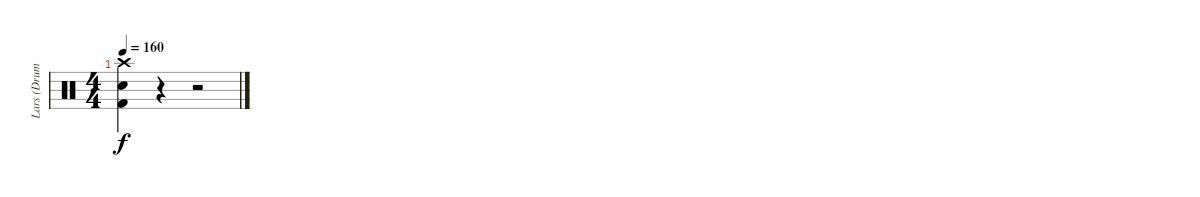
\track ("Lars (Drums)" "Lars (Drum") {instrument percussion}
\staff {score}
\articulation defaults
\ts (4 4)
\tempo 160
\clef neutral
\ks c
("Crash high (hit)" "Snare (hit) 2" "Kick (hit) 2").4{dy f} r.4 r.2
